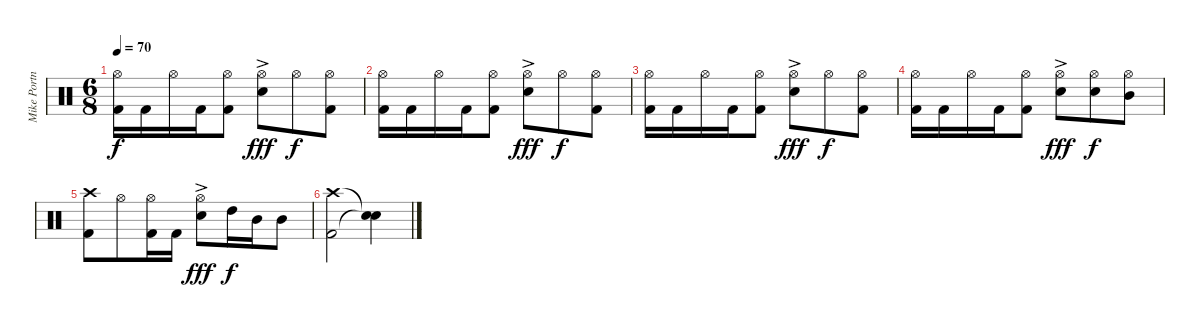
\track ("Mike Portnoy" "Mike Portn") {instrument percussion}
\staff {score}
\articulation defaults
\ts (6 8)
\tempo 70
\clef neutral
\ks c
("Hi-Hat (open)" "Kick (hit) 2").16{dy f} "Kick (hit) 2".16 "Hi-Hat (open)".16 "Kick (hit) 2".16 ("Hi-Hat (open)" "Kick (hit) 2").8 ("Hi-Hat (open)" "Snare (hit) 2"{ac}).8{dy fff} "Hi-Hat (open)".8{dy f} ("Hi-Hat (open)" "Kick (hit) 2").8 |
("Hi-Hat (open)" "Kick (hit) 2").16 "Kick (hit) 2".16 "Hi-Hat (open)".16 "Kick (hit) 2".16 ("Hi-Hat (open)" "Kick (hit) 2").8 ("Hi-Hat (open)" "Snare (hit) 2"{ac}).8{dy fff} "Hi-Hat (open)".8{dy f} ("Hi-Hat (open)" "Kick (hit) 2").8 |
("Hi-Hat (open)" "Kick (hit) 2").16 "Kick (hit) 2".16 "Hi-Hat (open)".16 "Kick (hit) 2".16 ("Hi-Hat (open)" "Kick (hit) 2").8 ("Hi-Hat (open)" "Snare (hit) 2"{ac}).8{dy fff} "Hi-Hat (open)".8{dy f} ("Hi-Hat (open)" "Kick (hit) 2").8 |
("Hi-Hat (open)" "Kick (hit) 2").16 "Kick (hit) 2".16 "Hi-Hat (open)".16 "Kick (hit) 2".16 ("Hi-Hat (open)" "Kick (hit) 2").8 ("Hi-Hat (open)" "Snare (hit) 2"{ac}).8{dy fff} ("Hi-Hat (open)" "Snare (hit) 2").8{dy f} ("Hi-Hat (open)" "Mid Tom (hit)").8 |
("Crash high (hit)" "Kick (hit) 2").8 "Hi-Hat (open)".8 ("Hi-Hat (open)" "Kick (hit) 2").16 "Kick (hit) 2".16 ("Hi-Hat (open)"{ac} "Snare (hit) 2"{ac}).8{dy fff} "High Tom (hit)".16{dy f} "Mid Tom (hit)".16 "Mid Tom (hit)".8 |
("Crash high (hit)" "Kick (hit) 2").2 ("Snare (hit)"{t} "Snare (hit)"{t}).4
